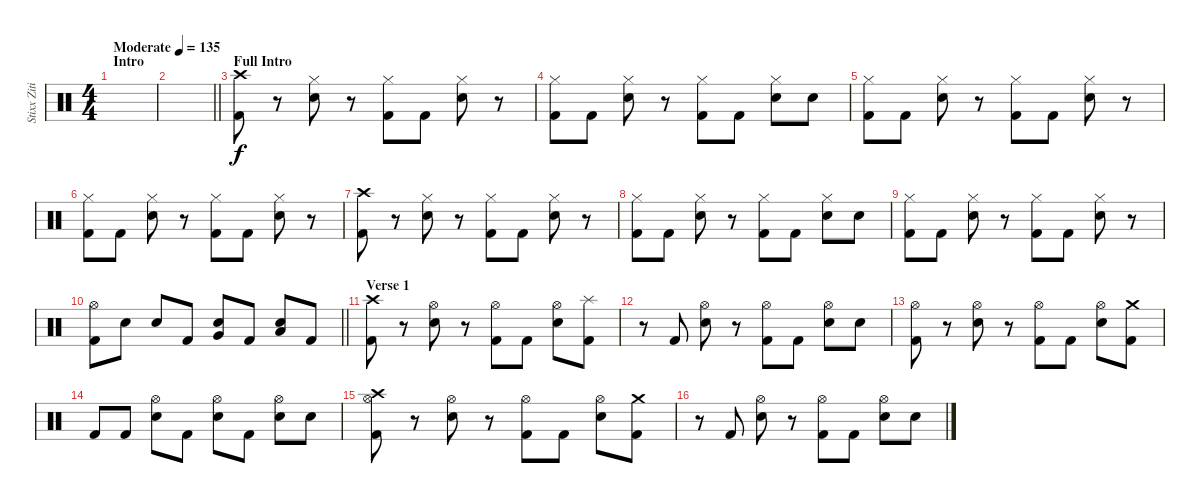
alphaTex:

\track ("Stixx Zitinya Drums" "Stixx Ziti") {instrument percussion}
\staff {score}
\articulation defaults
\ts (4 4)
\section ("" "Intro")
\tempo (135 "Moderate")
\clef neutral
\ks c
|
\barLineRight lightlight
|
\section ("" "Full Intro")
("Crash high (hit)" "Kick (hit) 2").8 r.8 ("Hi-Hat (closed)" "Snare (hit) 2").8 r.8 ("Hi-Hat (closed)" "Kick (hit) 2").8 "Kick (hit) 2".8 ("Hi-Hat (closed)" "Snare (hit) 2").8 r.8 |
("Hi-Hat (closed)" "Kick (hit) 2").8 "Kick (hit) 2".8 ("Hi-Hat (closed)" "Snare (hit) 2").8 r.8 ("Hi-Hat (closed)" "Kick (hit) 2").8 "Kick (hit) 2".8 ("Hi-Hat (closed)" "Snare (hit) 2").8 "Snare (hit) 2".8 |
("Hi-Hat (closed)" "Kick (hit) 2").8 "Kick (hit) 2".8 ("Hi-Hat (closed)" "Snare (hit) 2").8 r.8 ("Hi-Hat (closed)" "Kick (hit) 2").8 "Kick (hit) 2".8 ("Hi-Hat (closed)" "Snare (hit) 2").8 r.8 |
("Hi-Hat (closed)" "Kick (hit) 2").8 "Kick (hit) 2".8 ("Hi-Hat (closed)" "Snare (hit) 2").8 r.8 ("Hi-Hat (closed)" "Kick (hit) 2").8 "Kick (hit) 2".8 ("Hi-Hat (closed)" "Snare (hit) 2").8 r.8 |
("Crash high (hit)" "Kick (hit) 2").8 r.8 ("Hi-Hat (closed)" "Snare (hit) 2").8 r.8 ("Hi-Hat (closed)" "Kick (hit) 2").8 "Kick (hit) 2".8 ("Hi-Hat (closed)" "Snare (hit) 2").8 r.8 |
("Hi-Hat (closed)" "Kick (hit) 2").8 "Kick (hit) 2".8 ("Hi-Hat (closed)" "Snare (hit) 2").8 r.8 ("Hi-Hat (closed)" "Kick (hit) 2").8 "Kick (hit) 2".8 ("Hi-Hat (closed)" "Snare (hit) 2").8 "Snare (hit) 2".8 |
("Hi-Hat (closed)" "Kick (hit) 2").8 "Kick (hit) 2".8 ("Hi-Hat (closed)" "Snare (hit) 2").8 r.8 ("Hi-Hat (closed)" "Kick (hit) 2").8 "Kick (hit) 2".8 ("Hi-Hat (closed)" "Snare (hit) 2").8 r.8 |
\barLineRight lightlight
("Hi-Hat (open)" "Kick (hit) 2").8 "Snare (hit) 2".8 "Snare (hit) 2".8 "Kick (hit) 2".8 ("Snare (hit) 2" "Very Low Tom (hit)").8 "Kick (hit) 2".8 ("Snare (hit) 2" "Low Floor Tom (hit)").8 "Kick (hit) 2".8 |
\section ("" "Verse 1")
("Crash high (hit)" "Kick (hit) 2").8 r.8 ("Hi-Hat (open)" "Snare (hit) 2").8 r.8 ("Hi-Hat (open)" "Kick (hit) 2").8 "Kick (hit) 2".8 ("Hi-Hat (open)" "Snare (hit) 2").8 ("Splash (hit)" "Kick (hit) 2").8 |
r.8 "Kick (hit) 2".8 ("Hi-Hat (open)" "Snare (hit) 2").8 r.8 ("Hi-Hat (open)" "Kick (hit) 2").8 "Kick (hit) 2".8 ("Hi-Hat (open)" "Snare (hit) 2").8 "Snare (hit) 2".8 |
("Hi-Hat (open)" "Kick (hit) 2").8 r.8 ("Hi-Hat (open)" "Snare (hit) 2").8 r.8 ("Hi-Hat (open)" "Kick (hit) 2").8 "Kick (hit) 2".8 ("Hi-Hat (open)" "Snare (hit) 2").8 ("Crash medium (hit)" "Kick (hit) 2").8 |
"Kick (hit) 2".8 "Kick (hit) 2".8 ("Hi-Hat (open)" "Snare (hit) 2").8 "Kick (hit) 2".8 ("Hi-Hat (open)" "Snare (hit) 2").8 "Kick (hit) 2".8 ("Hi-Hat (open)" "Snare (hit) 2").8 "Snare (hit) 2".8 |
("Crash high (hit)" "Hi-Hat (open)" "Kick (hit) 2").8 r.8 ("Hi-Hat (open)" "Snare (hit) 2").8 r.8 ("Hi-Hat (open)" "Kick (hit) 2").8 "Kick (hit) 2".8 ("Hi-Hat (open)" "Snare (hit) 2").8 ("Crash medium (hit)" "Kick (hit) 2").8 |
r.8 "Kick (hit) 2".8 ("Hi-Hat (open)" "Snare (hit) 2").8 r.8 ("Hi-Hat (open)" "Kick (hit) 2").8 "Kick (hit) 2".8 ("Hi-Hat (open)" "Snare (hit) 2").8 "Snare (hit) 2".8
